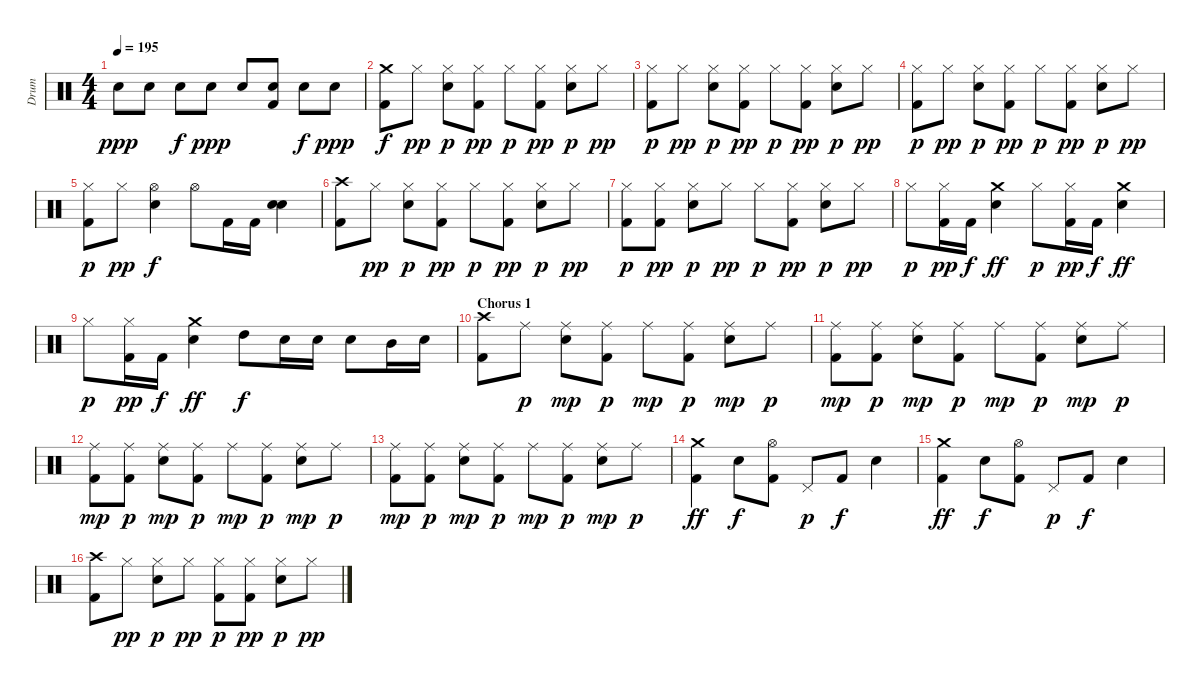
\track ("Drum" "Drum") {instrument percussion}
\staff {score}
\articulation defaults
\ts (4 4)
\tempo 195
\clef neutral
\ks c "Electric Snare (hit)".8{dy ppp} "Electric Snare (hit)".8 "Electric Snare (hit)".8{dy f} "Electric Snare (hit)".8{dy ppp} "Electric Snare (hit)".8
("Electric Snare (hit)" "Kick (hit) 2").8 "Electric Snare (hit)".8{dy f} "Electric Snare (hit)".8{dy ppp} |
("Crash medium (hit)" "Kick (hit) 2").8{dy f} "Hi-Hat (closed)".8{dy pp} ("Hi-Hat (closed)" "Electric Snare (hit)").8{dy p} ("Hi-Hat (closed)" "Kick (hit) 2").8{dy pp} "Hi-Hat (closed)".8{dy p} ("Hi-Hat (closed)" "Kick (hit) 2").8{dy pp} ("Hi-Hat (closed)" "Electric Snare (hit)").8{dy p} "Hi-Hat (closed)".8{dy pp} |
("Hi-Hat (closed)" "Kick (hit) 2").8{dy p} "Hi-Hat (closed)".8{dy pp} ("Hi-Hat (closed)" "Electric Snare (hit)").8{dy p} ("Hi-Hat (closed)" "Kick (hit) 2").8{dy pp} "Hi-Hat (closed)".8{dy p} ("Hi-Hat (closed)" "Kick (hit) 2").8{dy pp} ("Hi-Hat (closed)" "Electric Snare (hit)").8{dy p} "Hi-Hat (closed)".8{dy pp} |
("Hi-Hat (closed)" "Kick (hit) 2").8{dy p} "Hi-Hat (closed)".8{dy pp} ("Hi-Hat (closed)" "Electric Snare (hit)").8{dy p} ("Hi-Hat (closed)" "Kick (hit) 2").8{dy pp} "Hi-Hat (closed)".8{dy p} ("Hi-Hat (closed)" "Kick (hit) 2").8{dy pp} ("Hi-Hat (closed)" "Electric Snare (hit)").8{dy p} "Hi-Hat (closed)".8{dy pp} |
("Hi-Hat (closed)" "Kick (hit) 2").8{dy p} "Hi-Hat (closed)".8{dy pp} ("Hi-Hat (open)" "Electric Snare (hit)").4{dy f} "Hi-Hat (open)".8 "Kick (hit) 2".16 "Kick (hit) 2".16 ("Electric Snare (hit)" "Electric Snare (hit)").4 |
("Crash high (hit)" "Kick (hit) 2").8 "Hi-Hat (closed)".8{dy pp} ("Hi-Hat (closed)" "Electric Snare (hit)").8{dy p} ("Hi-Hat (closed)" "Kick (hit) 2").8{dy pp} "Hi-Hat (closed)".8{dy p} ("Hi-Hat (closed)" "Kick (hit) 2").8{dy pp} ("Hi-Hat (closed)" "Electric Snare (hit)").8{dy p} "Hi-Hat (closed)".8{dy pp} |
("Hi-Hat (closed)" "Kick (hit) 2").8{dy p} ("Hi-Hat (closed)" "Kick (hit) 2").8{dy pp} ("Hi-Hat (closed)" "Electric Snare (hit)").8{dy p} "Hi-Hat (closed)".8{dy pp} "Hi-Hat (closed)".8{dy p} ("Hi-Hat (closed)" "Kick (hit) 2").8{dy pp} ("Hi-Hat (closed)" "Electric Snare (hit)").8{dy p} "Hi-Hat (closed)".8{dy pp} |
"Hi-Hat (closed)".8{dy p} ("Hi-Hat (closed)" "Kick (hit) 2").16{dy pp} "Kick (hit) 2".16{dy f} ("Crash medium (hit)" "Electric Snare (hit)").4{dy ff} "Hi-Hat (closed)".8{dy p} ("Hi-Hat (closed)" "Kick (hit) 2").16{dy pp} "Kick (hit) 2".16{dy f} ("Crash medium (hit)" "Electric Snare (hit)").4{dy ff} |
"Hi-Hat (closed)".8{dy p} ("Hi-Hat (closed)" "Kick (hit) 2").16{dy pp} "Kick (hit) 2".16{dy f} ("Crash medium (hit)" "Electric Snare (hit)").4{dy ff} "High Tom (hit)".8{dy f} "Electric Snare (hit)".16 "Electric Snare (hit)".16 "Electric Snare (hit)".8 "Mid Tom (hit)".16 "Electric Snare (hit)".16 |
\section ("" "Chorus 1")
("Crash high (hit)" "Kick (hit) 2").8 "Ride (middle)".8{dy p} ("Ride (middle)" "Electric Snare (hit)").8{dy mp} ("Ride (middle)" "Kick (hit) 2").8{dy p} "Ride (middle)".8{dy mp} ("Ride (middle)" "Kick (hit) 2").8{dy p} ("Ride (middle)" "Electric Snare (hit)").8{dy mp} "Ride (middle)".8{dy p} |
("Ride (middle)" "Kick (hit) 2").8{dy mp} ("Ride (middle)" "Kick (hit) 2").8{dy p} ("Ride (middle)" "Electric Snare (hit)").8{dy mp} ("Ride (middle)" "Kick (hit) 2").8{dy p} "Ride (middle)".8{dy mp} ("Ride (middle)" "Kick (hit) 2").8{dy p} ("Ride (middle)" "Electric Snare (hit)").8{dy mp} "Ride (middle)".8{dy p} |
("Ride (middle)" "Kick (hit) 2").8{dy mp} ("Ride (middle)" "Kick (hit) 2").8{dy p} ("Ride (middle)" "Electric Snare (hit)").8{dy mp} ("Ride (middle)" "Kick (hit) 2").8{dy p} "Ride (middle)".8{dy mp} ("Ride (middle)" "Kick (hit) 2").8{dy p} ("Ride (middle)" "Electric Snare (hit)").8{dy mp} "Ride (middle)".8{dy p} |
("Ride (middle)" "Kick (hit) 2").8{dy mp} ("Ride (middle)" "Kick (hit) 2").8{dy p} ("Ride (middle)" "Electric Snare (hit)").8{dy mp} ("Ride (middle)" "Kick (hit) 2").8{dy p} "Ride (middle)".8{dy mp} ("Ride (middle)" "Kick (hit) 2").8{dy p} ("Ride (middle)" "Electric Snare (hit)").8{dy mp} "Ride (middle)".8{dy p} |
("Crash medium (hit)" "Kick (hit) 2").4{dy ff} "Electric Snare (hit)".8{dy f} ("Hi-Hat (open)" "Kick (hit) 2").8 "Pedal Hi-Hat (hit)".8{dy p} "Kick (hit) 2".8{dy f} "Electric Snare (hit)".4 |
("Crash medium (hit)" "Kick (hit) 2").4{dy ff} "Electric Snare (hit)".8{dy f} ("Hi-Hat (open)" "Kick (hit) 2").8 "Pedal Hi-Hat (hit)".8{dy p} "Kick (hit) 2".8{dy f} "Electric Snare (hit)".4 |
("Crash high (hit)" "Kick (hit) 2").8 "Hi-Hat (closed)".8{dy pp} ("Hi-Hat (closed)" "Electric Snare (hit)").8{dy p} "Hi-Hat (closed)".8{dy pp} ("Hi-Hat (closed)" "Kick (hit) 2").8{dy p} ("Hi-Hat (closed)" "Kick (hit) 2").8{dy pp} ("Hi-Hat (closed)" "Electric Snare (hit)").8{dy p} "Hi-Hat (closed)".8{dy pp}
